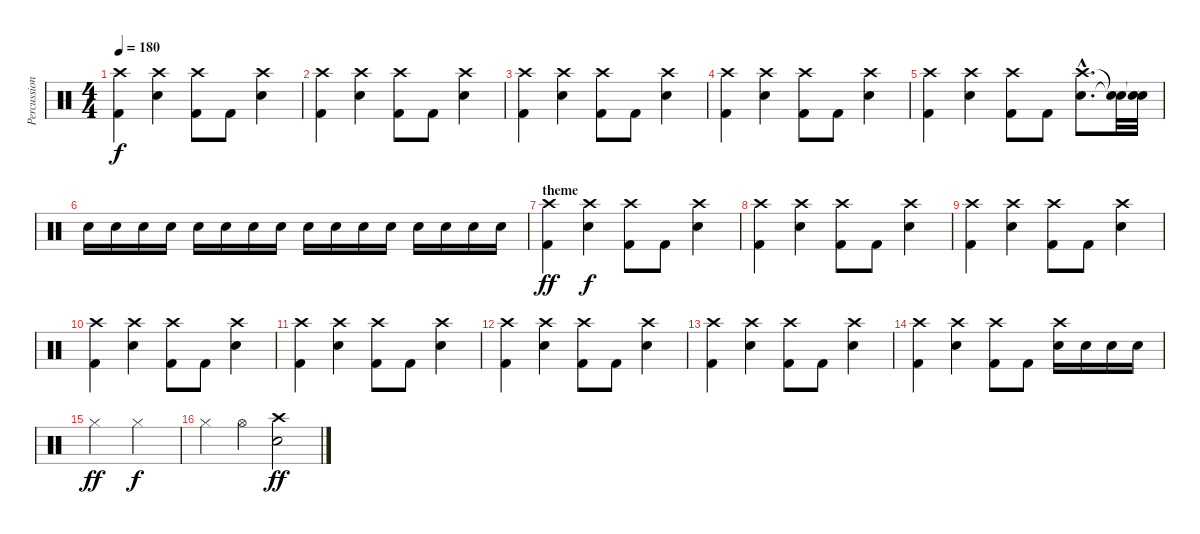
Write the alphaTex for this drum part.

\track ("Percussions" "Percussion") {instrument percussion}
\staff {score}
\articulation defaults
\ts (4 4)
\tempo 180
\clef neutral
\ks c
("Crash high (hit)" "Kick (hit) 2").4{dy f} ("Crash high (hit)" "Snare (hit) 2").4 ("Crash high (hit)" "Kick (hit) 2").8 "Kick (hit) 2".8 ("Crash high (hit)" "Snare (hit) 2").4 |
("Crash high (hit)" "Kick (hit) 2").4 ("Crash high (hit)" "Snare (hit) 2").4 ("Crash high (hit)" "Kick (hit) 2").8 "Kick (hit) 2".8 ("Crash high (hit)" "Snare (hit) 2").4 |
("Crash high (hit)" "Kick (hit) 2").4 ("Crash high (hit)" "Snare (hit) 2").4 ("Crash high (hit)" "Kick (hit) 2").8 "Kick (hit) 2".8 ("Crash high (hit)" "Snare (hit) 2").4 |
("Crash high (hit)" "Kick (hit) 2").4 ("Crash high (hit)" "Snare (hit) 2").4 ("Crash high (hit)" "Kick (hit) 2").8 "Kick (hit) 2".8 ("Crash high (hit)" "Snare (hit) 2").4 |
("Crash high (hit)" "Kick (hit) 2").4 ("Crash high (hit)" "Snare (hit) 2").4 ("Crash high (hit)" "Kick (hit) 2").8 "Kick (hit) 2".8 ("Crash high (hit)"{hac} "Snare (hit) 2"{hac}).8{d} ("Snare (hit)"{t} "Snare (hit)"{t}).32 ("Snare (hit)"{t} "Snare (hit)"{t}).32{volume 7} |
"Snare (hit) 2".16{volume 13} "Snare (hit) 2".16 "Snare (hit) 2".16 "Snare (hit) 2".16 "Snare (hit) 2".16 "Snare (hit) 2".16 "Snare (hit) 2".16 "Snare (hit) 2".16 "Snare (hit) 2".16 "Snare (hit) 2".16 "Snare (hit) 2".16 "Snare (hit) 2".16 "Snare (hit) 2".16 "Snare (hit) 2".16 "Snare (hit) 2".16 "Snare (hit) 2".16 |
\section ("" "theme")
("Crash high (hit)" "Kick (hit) 2").4{dy ff} ("Crash high (hit)" "Snare (hit) 2").4{dy f} ("Crash high (hit)" "Kick (hit) 2").8 "Kick (hit) 2".8 ("Crash high (hit)" "Snare (hit) 2").4 |
("Crash high (hit)" "Kick (hit) 2").4 ("Crash high (hit)" "Snare (hit) 2").4 ("Crash high (hit)" "Kick (hit) 2").8 "Kick (hit) 2".8 ("Crash high (hit)" "Snare (hit) 2").4 |
("Crash high (hit)" "Kick (hit) 2").4 ("Crash high (hit)" "Snare (hit) 2").4 ("Crash high (hit)" "Kick (hit) 2").8 "Kick (hit) 2".8 ("Crash high (hit)" "Snare (hit) 2").4 |
("Crash high (hit)" "Kick (hit) 2").4 ("Crash high (hit)" "Snare (hit) 2").4 ("Crash high (hit)" "Kick (hit) 2").8 "Kick (hit) 2".8 ("Crash high (hit)" "Snare (hit) 2").4 |
("Crash high (hit)" "Kick (hit) 2").4 ("Crash high (hit)" "Snare (hit) 2").4 ("Crash high (hit)" "Kick (hit) 2").8 "Kick (hit) 2".8 ("Crash high (hit)" "Snare (hit) 2").4 |
("Crash high (hit)" "Kick (hit) 2").4 ("Crash high (hit)" "Snare (hit) 2").4 ("Crash high (hit)" "Kick (hit) 2").8 "Kick (hit) 2".8 ("Crash high (hit)" "Snare (hit) 2").4 |
("Crash high (hit)" "Kick (hit) 2").4 ("Crash high (hit)" "Snare (hit) 2").4 ("Crash high (hit)" "Kick (hit) 2").8 "Kick (hit) 2".8 ("Crash high (hit)" "Snare (hit) 2").4 |
("Crash high (hit)" "Kick (hit) 2").4 ("Crash high (hit)" "Snare (hit) 2").4 ("Crash high (hit)" "Kick (hit) 2").8 "Kick (hit) 2".8 ("Crash high (hit)" "Snare (hit) 2").16 "Snare (hit) 2".16 "Snare (hit) 2".16 "Snare (hit) 2".16 |
"Hi-Hat (closed)".2{dy ff} "Hi-Hat (closed)".2{dy f} |
"Hi-Hat (closed)".4 "Hi-Hat (open)".4 ("Crash high (hit)" "Snare (hit) 2").2{dy ff}
